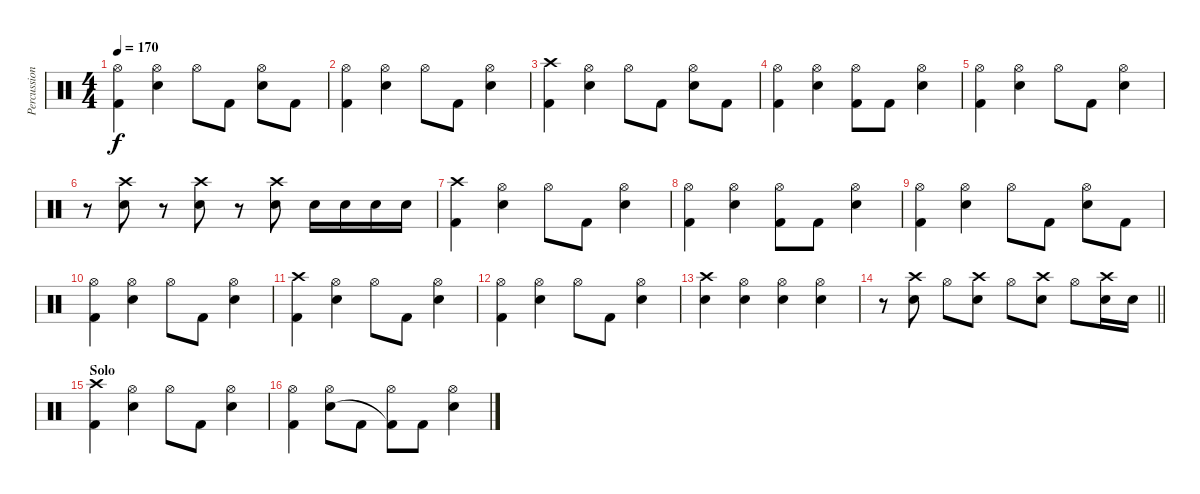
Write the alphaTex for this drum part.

\track ("Percussion" "Percussion") {instrument percussion}
\staff {score}
\articulation defaults
\ts (4 4)
\tempo 170
\clef neutral
\ks c
("Hi-Hat (open)" "Kick (hit) 2").4{dy f} ("Hi-Hat (open)" "Snare (hit) 2").4 "Hi-Hat (open)".8 "Kick (hit) 2".8 ("Hi-Hat (open)" "Snare (hit) 2").8 "Kick (hit) 2".8 |
("Hi-Hat (open)" "Kick (hit) 2").4 ("Hi-Hat (open)" "Snare (hit) 2").4 "Hi-Hat (open)".8 "Kick (hit) 2".8 ("Hi-Hat (open)" "Snare (hit) 2").4 |
("Crash high (hit)" "Kick (hit) 2").4 ("Hi-Hat (open)" "Snare (hit) 2").4 "Hi-Hat (open)".8 "Kick (hit) 2".8 ("Hi-Hat (open)" "Snare (hit) 2").8 "Kick (hit) 2".8 |
("Hi-Hat (open)" "Kick (hit) 2").4 ("Hi-Hat (open)" "Snare (hit) 2").4 ("Hi-Hat (open)" "Kick (hit) 2").8 "Kick (hit) 2".8 ("Hi-Hat (open)" "Snare (hit) 2").4 |
("Hi-Hat (open)" "Kick (hit) 2").4 ("Hi-Hat (open)" "Snare (hit) 2").4 "Hi-Hat (open)".8 "Kick (hit) 2".8 ("Hi-Hat (open)" "Snare (hit) 2").4 |
r.8 ("Crash high (hit)" "Snare (hit) 2").8 r.8 ("Crash high (hit)" "Snare (hit) 2").8 r.8 ("Crash high (hit)" "Snare (hit) 2").8 "Snare (hit) 2".16 "Snare (hit) 2".16 "Snare (hit) 2".16 "Snare (hit) 2".16 |
("Crash high (hit)" "Kick (hit) 2").4 ("Hi-Hat (open)" "Snare (hit) 2").4 "Hi-Hat (open)".8 "Kick (hit) 2".8 ("Hi-Hat (open)" "Snare (hit) 2").4 |
("Hi-Hat (open)" "Kick (hit) 2").4 ("Hi-Hat (open)" "Snare (hit) 2").4 ("Hi-Hat (open)" "Kick (hit) 2").8 "Kick (hit) 2".8 ("Hi-Hat (open)" "Snare (hit) 2").4 |
("Hi-Hat (open)" "Kick (hit) 2").4 ("Hi-Hat (open)" "Snare (hit) 2").4 "Hi-Hat (open)".8 "Kick (hit) 2".8 ("Hi-Hat (open)" "Snare (hit) 2").8 "Kick (hit) 2".8 |
("Hi-Hat (open)" "Kick (hit) 2").4 ("Hi-Hat (open)" "Snare (hit) 2").4 "Hi-Hat (open)".8 "Kick (hit) 2".8 ("Hi-Hat (open)" "Snare (hit) 2").4 |
("Crash high (hit)" "Kick (hit) 2").4 ("Hi-Hat (open)" "Snare (hit) 2").4 "Hi-Hat (open)".8 "Kick (hit) 2".8 ("Hi-Hat (open)" "Snare (hit) 2").4 |
("Hi-Hat (open)" "Kick (hit) 2").4 ("Hi-Hat (open)" "Snare (hit) 2").4 "Hi-Hat (open)".8 "Kick (hit) 2".8 ("Hi-Hat (open)" "Snare (hit) 2").4 |
("Crash high (hit)" "Snare (hit) 2").4 ("Hi-Hat (open)" "Snare (hit) 2").4 ("Hi-Hat (open)" "Snare (hit) 2").4 ("Hi-Hat (open)" "Snare (hit) 2").4 |
\barLineRight lightlight
r.8 ("Crash high (hit)" "Snare (hit) 2").8 "Hi-Hat (open)".8 ("Crash high (hit)" "Snare (hit) 2").8 "Hi-Hat (open)".8 ("Crash high (hit)" "Snare (hit) 2").8 "Hi-Hat (open)".8 ("Crash high (hit)" "Snare (hit) 2").16 "Snare (hit) 2".16 |
\section ("" "Solo")
("Crash high (hit)" "Kick (hit) 2").4 ("Hi-Hat (open)" "Snare (hit) 2").4 "Hi-Hat (open)".8 "Kick (hit) 2".8 ("Hi-Hat (open)" "Snare (hit) 2").4 |
("Hi-Hat (open)" "Kick (hit) 2").4 ("Hi-Hat (open)" "Snare (hit) 2").8 "Kick (hit) 2".8 ("Hi-Hat (open)" "Kick (hit) 2"{t}).8 "Kick (hit) 2".8 ("Hi-Hat (open)" "Snare (hit) 2").4
